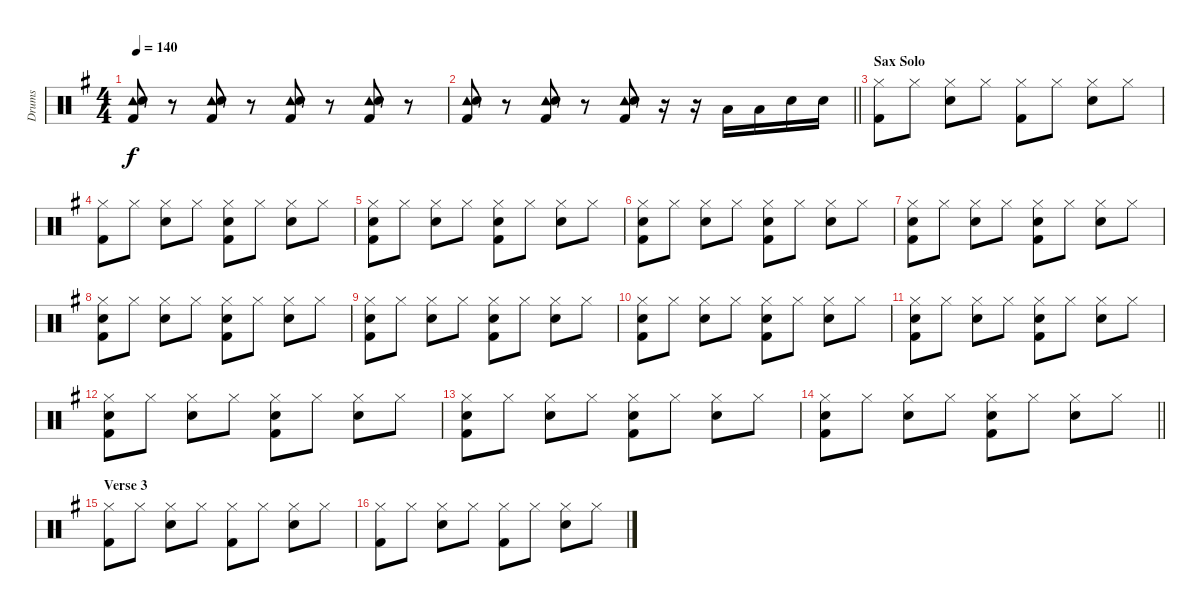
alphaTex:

\track ("Drums" "Drums") {instrument percussion}
\staff {score}
\articulation defaults
\ts (4 4)
\tempo 140
\clef neutral
\ks g
("Tambourine (hit)" "Snare (hit) 2" "Kick (hit) 2").8{dy f} r.8 ("Tambourine (hit)" "Snare (hit) 2" "Kick (hit) 2").8 r.8 ("Tambourine (hit)" "Snare (hit) 2" "Kick (hit) 2").8 r.8 ("Tambourine (hit)" "Snare (hit) 2" "Kick (hit) 2").8 r.8 |
\barLineRight lightlight
("Tambourine (hit)" "Snare (hit) 2" "Kick (hit) 2").8 r.8 ("Tambourine (hit)" "Snare (hit) 2" "Kick (hit) 2").8 r.8 ("Tambourine (hit)" "Snare (hit) 2" "Kick (hit) 2").8 r.16 r.16 "Low Tom (hit)".16 "Low Tom (hit)".16 "Snare (hit) 2".16 "Snare (hit) 2".16 |
\section ("" "Sax Solo")
("Hi-Hat (closed)" "Kick (hit) 2").8 "Hi-Hat (closed)".8 ("Hi-Hat (closed)" "Snare (hit) 2").8 "Hi-Hat (closed)".8 ("Hi-Hat (closed)" "Kick (hit) 2").8 "Hi-Hat (closed)".8 ("Hi-Hat (closed)" "Snare (hit) 2").8 "Hi-Hat (closed)".8 |
("Hi-Hat (closed)" "Kick (hit) 2").8 "Hi-Hat (closed)".8 ("Hi-Hat (closed)" "Snare (hit) 2").8 "Hi-Hat (closed)".8 ("Hi-Hat (closed)" "Snare (hit) 2" "Kick (hit) 2").8 "Hi-Hat (closed)".8 ("Hi-Hat (closed)" "Snare (hit) 2").8 "Hi-Hat (closed)".8 |
("Hi-Hat (closed)" "Snare (hit) 2" "Kick (hit) 2").8 "Hi-Hat (closed)".8 ("Hi-Hat (closed)" "Snare (hit) 2").8 "Hi-Hat (closed)".8 ("Hi-Hat (closed)" "Snare (hit) 2" "Kick (hit) 2").8 "Hi-Hat (closed)".8 ("Hi-Hat (closed)" "Snare (hit) 2").8 "Hi-Hat (closed)".8 |
("Hi-Hat (closed)" "Snare (hit) 2" "Kick (hit) 2").8 "Hi-Hat (closed)".8 ("Hi-Hat (closed)" "Snare (hit) 2").8 "Hi-Hat (closed)".8 ("Hi-Hat (closed)" "Snare (hit) 2" "Kick (hit) 2").8 "Hi-Hat (closed)".8 ("Hi-Hat (closed)" "Snare (hit) 2").8 "Hi-Hat (closed)".8 |
("Hi-Hat (closed)" "Snare (hit) 2" "Kick (hit) 2").8 "Hi-Hat (closed)".8 ("Hi-Hat (closed)" "Snare (hit) 2").8 "Hi-Hat (closed)".8 ("Hi-Hat (closed)" "Snare (hit) 2" "Kick (hit) 2").8 "Hi-Hat (closed)".8 ("Hi-Hat (closed)" "Snare (hit) 2").8 "Hi-Hat (closed)".8 |
("Hi-Hat (closed)" "Snare (hit) 2" "Kick (hit) 2").8 "Hi-Hat (closed)".8 ("Hi-Hat (closed)" "Snare (hit) 2").8 "Hi-Hat (closed)".8 ("Hi-Hat (closed)" "Snare (hit) 2" "Kick (hit) 2").8 "Hi-Hat (closed)".8 ("Hi-Hat (closed)" "Snare (hit) 2").8 "Hi-Hat (closed)".8 |
("Hi-Hat (closed)" "Snare (hit) 2" "Kick (hit) 2").8 "Hi-Hat (closed)".8 ("Hi-Hat (closed)" "Snare (hit) 2").8 "Hi-Hat (closed)".8 ("Hi-Hat (closed)" "Snare (hit) 2" "Kick (hit) 2").8 "Hi-Hat (closed)".8 ("Hi-Hat (closed)" "Snare (hit) 2").8 "Hi-Hat (closed)".8 |
("Hi-Hat (closed)" "Snare (hit) 2" "Kick (hit) 2").8 "Hi-Hat (closed)".8 ("Hi-Hat (closed)" "Snare (hit) 2").8 "Hi-Hat (closed)".8 ("Hi-Hat (closed)" "Snare (hit) 2" "Kick (hit) 2").8 "Hi-Hat (closed)".8 ("Hi-Hat (closed)" "Snare (hit) 2").8 "Hi-Hat (closed)".8 |
("Hi-Hat (closed)" "Snare (hit) 2" "Kick (hit) 2").8 "Hi-Hat (closed)".8 ("Hi-Hat (closed)" "Snare (hit) 2").8 "Hi-Hat (closed)".8 ("Hi-Hat (closed)" "Snare (hit) 2" "Kick (hit) 2").8 "Hi-Hat (closed)".8 ("Hi-Hat (closed)" "Snare (hit) 2").8 "Hi-Hat (closed)".8 |
("Hi-Hat (closed)" "Snare (hit) 2" "Kick (hit) 2").8 "Hi-Hat (closed)".8 ("Hi-Hat (closed)" "Snare (hit) 2").8 "Hi-Hat (closed)".8 ("Hi-Hat (closed)" "Snare (hit) 2" "Kick (hit) 2").8 "Hi-Hat (closed)".8 ("Hi-Hat (closed)" "Snare (hit) 2").8 "Hi-Hat (closed)".8 |
("Hi-Hat (closed)" "Snare (hit) 2" "Kick (hit) 2").8 "Hi-Hat (closed)".8 ("Hi-Hat (closed)" "Snare (hit) 2").8 "Hi-Hat (closed)".8 ("Hi-Hat (closed)" "Snare (hit) 2" "Kick (hit) 2").8 "Hi-Hat (closed)".8 ("Hi-Hat (closed)" "Snare (hit) 2").8 "Hi-Hat (closed)".8 |
\barLineRight lightlight
("Hi-Hat (closed)" "Snare (hit) 2" "Kick (hit) 2").8 "Hi-Hat (closed)".8 ("Hi-Hat (closed)" "Snare (hit) 2").8 "Hi-Hat (closed)".8 ("Hi-Hat (closed)" "Snare (hit) 2" "Kick (hit) 2").8 "Hi-Hat (closed)".8 ("Hi-Hat (closed)" "Snare (hit) 2").8 "Hi-Hat (closed)".8 |
\section ("" "Verse 3")
("Hi-Hat (closed)" "Kick (hit) 2").8 "Hi-Hat (closed)".8 ("Hi-Hat (closed)" "Snare (hit) 2").8 "Hi-Hat (closed)".8 ("Hi-Hat (closed)" "Kick (hit) 2").8 "Hi-Hat (closed)".8 ("Hi-Hat (closed)" "Snare (hit) 2").8 "Hi-Hat (closed)".8 |
("Hi-Hat (closed)" "Kick (hit) 2").8 "Hi-Hat (closed)".8 ("Hi-Hat (closed)" "Snare (hit) 2").8 "Hi-Hat (closed)".8 ("Hi-Hat (closed)" "Kick (hit) 2").8 "Hi-Hat (closed)".8 ("Hi-Hat (closed)" "Snare (hit) 2").8 "Hi-Hat (closed)".8
